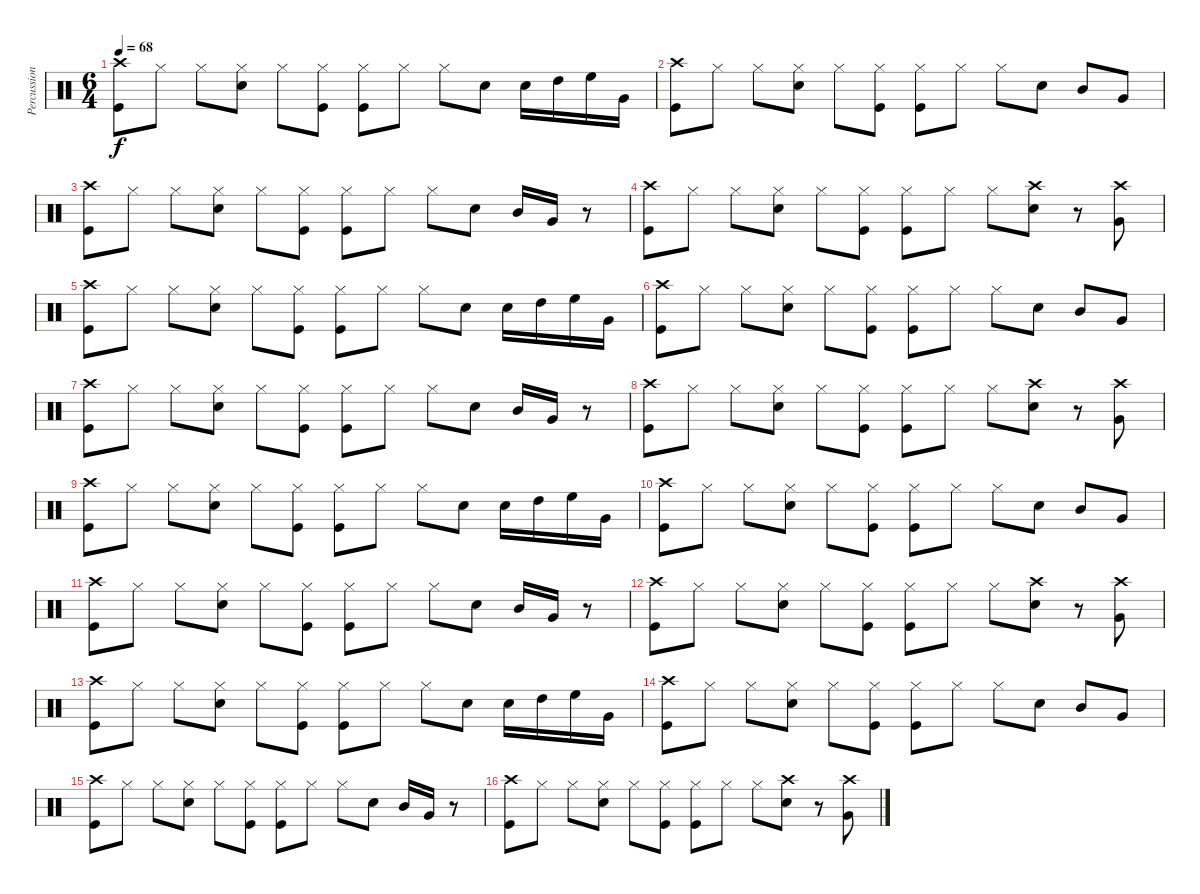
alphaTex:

\track ("Percussion" "Percussion") {instrument percussion}
\staff {score}
\articulation defaults
\ts (6 4)
\tempo 68
\clef neutral
\ks c
("Crash high (hit)" "Kick (hit)").8{dy f} "Hi-Hat (closed)".8 "Hi-Hat (closed)".8 ("Hi-Hat (closed)" "Electric Snare (hit)").8 "Hi-Hat (closed)".8 ("Hi-Hat (closed)" "Kick (hit)").8 ("Hi-Hat (closed)" "Kick (hit)").8 "Hi-Hat (closed)".8 "Hi-Hat (closed)".8 "Electric Snare (hit)".8 "Electric Snare (hit)".16 "High Tom (hit)".16 "High Floor Tom (hit)".16 "Very Low Tom (hit)".16 |
("Crash high (hit)" "Kick (hit)").8 "Hi-Hat (closed)".8 "Hi-Hat (closed)".8 ("Hi-Hat (closed)" "Electric Snare (hit)").8 "Hi-Hat (closed)".8 ("Hi-Hat (closed)" "Kick (hit)").8 ("Hi-Hat (closed)" "Kick (hit)").8 "Hi-Hat (closed)".8 "Hi-Hat (closed)".8 "Electric Snare (hit)".8 "Mid Tom (hit)".8 "Very Low Tom (hit)".8 |
("Crash high (hit)" "Kick (hit)").8 "Hi-Hat (closed)".8 "Hi-Hat (closed)".8 ("Hi-Hat (closed)" "Electric Snare (hit)").8 "Hi-Hat (closed)".8 ("Hi-Hat (closed)" "Kick (hit)").8 ("Hi-Hat (closed)" "Kick (hit)").8 "Hi-Hat (closed)".8 "Hi-Hat (closed)".8 "Electric Snare (hit)".8 "Mid Tom (hit)".16 "Very Low Tom (hit)".16 r.8 |
("Crash high (hit)" "Kick (hit)").8 "Hi-Hat (closed)".8 "Hi-Hat (closed)".8 ("Hi-Hat (closed)" "Electric Snare (hit)").8 "Hi-Hat (closed)".8 ("Hi-Hat (closed)" "Kick (hit)").8 ("Hi-Hat (closed)" "Kick (hit)").8 "Hi-Hat (closed)".8 "Hi-Hat (closed)".8 ("Crash high (hit)" "Electric Snare (hit)").8 r.8 ("Crash high (hit)" "Very Low Tom (hit)").8 |
("Crash high (hit)" "Kick (hit)").8 "Hi-Hat (closed)".8 "Hi-Hat (closed)".8 ("Hi-Hat (closed)" "Electric Snare (hit)").8 "Hi-Hat (closed)".8 ("Hi-Hat (closed)" "Kick (hit)").8 ("Hi-Hat (closed)" "Kick (hit)").8 "Hi-Hat (closed)".8 "Hi-Hat (closed)".8 "Electric Snare (hit)".8 "Electric Snare (hit)".16 "High Tom (hit)".16 "High Floor Tom (hit)".16 "Very Low Tom (hit)".16 |
("Crash high (hit)" "Kick (hit)").8 "Hi-Hat (closed)".8 "Hi-Hat (closed)".8 ("Hi-Hat (closed)" "Electric Snare (hit)").8 "Hi-Hat (closed)".8 ("Hi-Hat (closed)" "Kick (hit)").8 ("Hi-Hat (closed)" "Kick (hit)").8 "Hi-Hat (closed)".8 "Hi-Hat (closed)".8 "Electric Snare (hit)".8 "Mid Tom (hit)".8 "Very Low Tom (hit)".8 |
("Crash high (hit)" "Kick (hit)").8 "Hi-Hat (closed)".8 "Hi-Hat (closed)".8 ("Hi-Hat (closed)" "Electric Snare (hit)").8 "Hi-Hat (closed)".8 ("Hi-Hat (closed)" "Kick (hit)").8 ("Hi-Hat (closed)" "Kick (hit)").8 "Hi-Hat (closed)".8 "Hi-Hat (closed)".8 "Electric Snare (hit)".8 "Mid Tom (hit)".16 "Very Low Tom (hit)".16 r.8 |
("Crash high (hit)" "Kick (hit)").8 "Hi-Hat (closed)".8 "Hi-Hat (closed)".8 ("Hi-Hat (closed)" "Electric Snare (hit)").8 "Hi-Hat (closed)".8 ("Hi-Hat (closed)" "Kick (hit)").8 ("Hi-Hat (closed)" "Kick (hit)").8 "Hi-Hat (closed)".8 "Hi-Hat (closed)".8 ("Crash high (hit)" "Electric Snare (hit)").8 r.8 ("Crash high (hit)" "Very Low Tom (hit)").8 |
("Crash high (hit)" "Kick (hit)").8 "Hi-Hat (closed)".8 "Hi-Hat (closed)".8 ("Hi-Hat (closed)" "Electric Snare (hit)").8 "Hi-Hat (closed)".8 ("Hi-Hat (closed)" "Kick (hit)").8 ("Hi-Hat (closed)" "Kick (hit)").8 "Hi-Hat (closed)".8 "Hi-Hat (closed)".8 "Electric Snare (hit)".8 "Electric Snare (hit)".16 "High Tom (hit)".16 "High Floor Tom (hit)".16 "Very Low Tom (hit)".16 |
("Crash high (hit)" "Kick (hit)").8 "Hi-Hat (closed)".8 "Hi-Hat (closed)".8 ("Hi-Hat (closed)" "Electric Snare (hit)").8 "Hi-Hat (closed)".8 ("Hi-Hat (closed)" "Kick (hit)").8 ("Hi-Hat (closed)" "Kick (hit)").8 "Hi-Hat (closed)".8 "Hi-Hat (closed)".8 "Electric Snare (hit)".8 "Mid Tom (hit)".8 "Very Low Tom (hit)".8 |
("Crash high (hit)" "Kick (hit)").8 "Hi-Hat (closed)".8 "Hi-Hat (closed)".8 ("Hi-Hat (closed)" "Electric Snare (hit)").8 "Hi-Hat (closed)".8 ("Hi-Hat (closed)" "Kick (hit)").8 ("Hi-Hat (closed)" "Kick (hit)").8 "Hi-Hat (closed)".8 "Hi-Hat (closed)".8 "Electric Snare (hit)".8 "Mid Tom (hit)".16 "Very Low Tom (hit)".16 r.8 |
("Crash high (hit)" "Kick (hit)").8 "Hi-Hat (closed)".8 "Hi-Hat (closed)".8 ("Hi-Hat (closed)" "Electric Snare (hit)").8 "Hi-Hat (closed)".8 ("Hi-Hat (closed)" "Kick (hit)").8 ("Hi-Hat (closed)" "Kick (hit)").8 "Hi-Hat (closed)".8 "Hi-Hat (closed)".8 ("Crash high (hit)" "Electric Snare (hit)").8 r.8 ("Crash high (hit)" "Very Low Tom (hit)").8 |
("Crash high (hit)" "Kick (hit)").8 "Hi-Hat (closed)".8 "Hi-Hat (closed)".8 ("Hi-Hat (closed)" "Electric Snare (hit)").8 "Hi-Hat (closed)".8 ("Hi-Hat (closed)" "Kick (hit)").8 ("Hi-Hat (closed)" "Kick (hit)").8 "Hi-Hat (closed)".8 "Hi-Hat (closed)".8 "Electric Snare (hit)".8 "Electric Snare (hit)".16 "High Tom (hit)".16 "High Floor Tom (hit)".16 "Very Low Tom (hit)".16 |
("Crash high (hit)" "Kick (hit)").8 "Hi-Hat (closed)".8 "Hi-Hat (closed)".8 ("Hi-Hat (closed)" "Electric Snare (hit)").8 "Hi-Hat (closed)".8 ("Hi-Hat (closed)" "Kick (hit)").8 ("Hi-Hat (closed)" "Kick (hit)").8 "Hi-Hat (closed)".8 "Hi-Hat (closed)".8 "Electric Snare (hit)".8 "Mid Tom (hit)".8 "Very Low Tom (hit)".8 |
("Crash high (hit)" "Kick (hit)").8 "Hi-Hat (closed)".8 "Hi-Hat (closed)".8 ("Hi-Hat (closed)" "Electric Snare (hit)").8 "Hi-Hat (closed)".8 ("Hi-Hat (closed)" "Kick (hit)").8 ("Hi-Hat (closed)" "Kick (hit)").8 "Hi-Hat (closed)".8 "Hi-Hat (closed)".8 "Electric Snare (hit)".8 "Mid Tom (hit)".16 "Very Low Tom (hit)".16 r.8 |
("Crash high (hit)" "Kick (hit)").8 "Hi-Hat (closed)".8 "Hi-Hat (closed)".8 ("Hi-Hat (closed)" "Electric Snare (hit)").8 "Hi-Hat (closed)".8 ("Hi-Hat (closed)" "Kick (hit)").8 ("Hi-Hat (closed)" "Kick (hit)").8 "Hi-Hat (closed)".8 "Hi-Hat (closed)".8 ("Crash high (hit)" "Electric Snare (hit)").8 r.8 ("Crash high (hit)" "Very Low Tom (hit)").8
